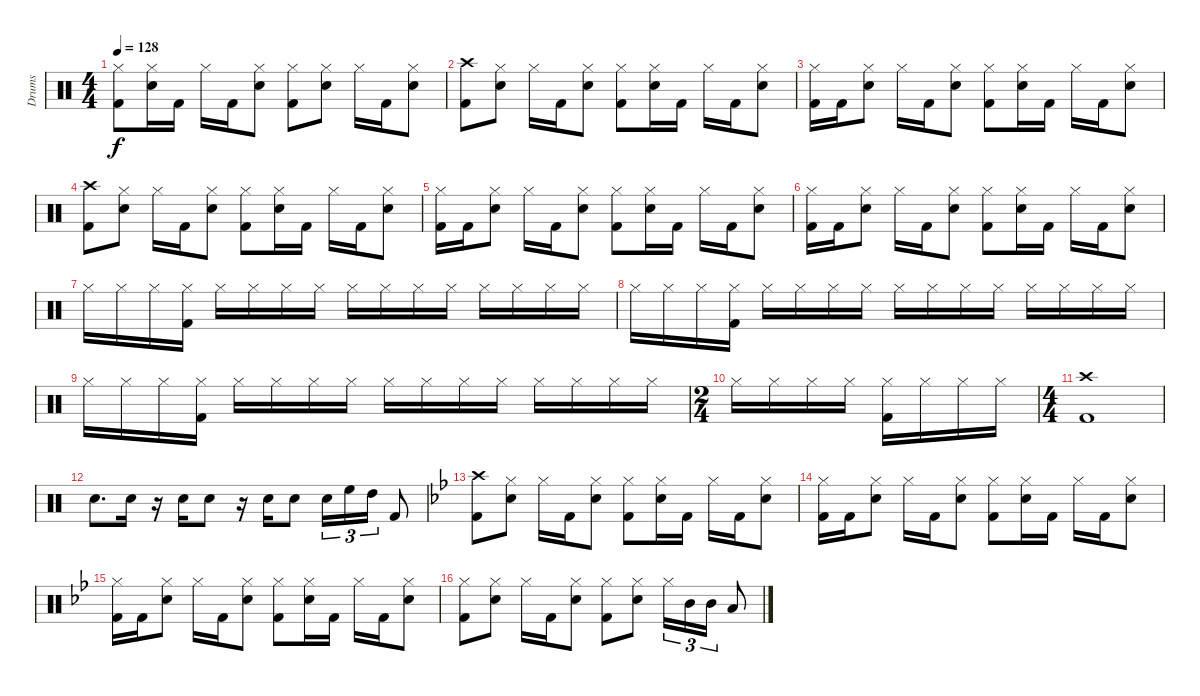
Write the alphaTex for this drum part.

\track ("Drums" "Drums") {instrument percussion}
\staff {score}
\articulation defaults
\ts (4 4)
\tempo 128
\clef neutral
\ks c
("Kick (hit) 2" "Hi-Hat (closed)").8{dy f} ("Snare (hit) 2" "Hi-Hat (closed)").16 "Kick (hit) 2".16 "Hi-Hat (closed)".16 "Kick (hit) 2".16 ("Snare (hit) 2" "Hi-Hat (closed)").8 ("Kick (hit) 2" "Hi-Hat (closed)").8 ("Snare (hit) 2" "Hi-Hat (closed)").8 "Hi-Hat (closed)".16 "Kick (hit) 2".16 ("Snare (hit) 2" "Hi-Hat (closed)").8 |
("Kick (hit) 2" "Crash high (hit)").8 ("Snare (hit) 2" "Hi-Hat (closed)").8 "Hi-Hat (closed)".16 "Kick (hit) 2".16 ("Snare (hit) 2" "Hi-Hat (closed)").8 ("Kick (hit) 2" "Hi-Hat (closed)").8 ("Snare (hit) 2" "Hi-Hat (closed)").16 "Kick (hit) 2".16 "Hi-Hat (closed)".16 "Kick (hit) 2".16 ("Snare (hit) 2" "Hi-Hat (closed)").8 |
("Kick (hit) 2" "Hi-Hat (closed)").16 "Kick (hit) 2".16 ("Snare (hit) 2" "Hi-Hat (closed)").8 "Hi-Hat (closed)".16 "Kick (hit) 2".16 ("Snare (hit) 2" "Hi-Hat (closed)").8 ("Kick (hit) 2" "Hi-Hat (closed)").8 ("Snare (hit) 2" "Hi-Hat (closed)").16 "Kick (hit) 2".16 "Hi-Hat (closed)".16 "Kick (hit) 2".16 ("Snare (hit) 2" "Hi-Hat (closed)").8 |
("Kick (hit) 2" "Crash high (hit)").8 ("Snare (hit) 2" "Hi-Hat (closed)").8 "Hi-Hat (closed)".16 "Kick (hit) 2".16 ("Snare (hit) 2" "Hi-Hat (closed)").8 ("Kick (hit) 2" "Hi-Hat (closed)").8 ("Snare (hit) 2" "Hi-Hat (closed)").16 "Kick (hit) 2".16 "Hi-Hat (closed)".16 "Kick (hit) 2".16 ("Snare (hit) 2" "Hi-Hat (closed)").8 |
("Kick (hit) 2" "Hi-Hat (closed)").16 "Kick (hit) 2".16 ("Snare (hit) 2" "Hi-Hat (closed)").8 "Hi-Hat (closed)".16 "Kick (hit) 2".16 ("Snare (hit) 2" "Hi-Hat (closed)").8 ("Kick (hit) 2" "Hi-Hat (closed)").8 ("Snare (hit) 2" "Hi-Hat (closed)").16 "Kick (hit) 2".16 "Hi-Hat (closed)".16 "Kick (hit) 2".16 ("Snare (hit) 2" "Hi-Hat (closed)").8 |
("Kick (hit) 2" "Hi-Hat (closed)").16 "Kick (hit) 2".16 ("Snare (hit) 2" "Hi-Hat (closed)").8 "Hi-Hat (closed)".16 "Kick (hit) 2".16 ("Snare (hit) 2" "Hi-Hat (closed)").8 ("Kick (hit) 2" "Hi-Hat (closed)").8 ("Snare (hit) 2" "Hi-Hat (closed)").16 "Kick (hit) 2".16 "Hi-Hat (closed)".16 "Kick (hit) 2".16 ("Snare (hit) 2" "Hi-Hat (closed)").8 |
"Hi-Hat (closed)".16 "Hi-Hat (closed)".16 "Hi-Hat (closed)".16 ("Kick (hit) 2" "Hi-Hat (closed)").16 "Hi-Hat (closed)".16 "Hi-Hat (closed)".16 "Hi-Hat (closed)".16 "Hi-Hat (closed)".16 "Hi-Hat (closed)".16 "Hi-Hat (closed)".16 "Hi-Hat (closed)".16 "Hi-Hat (closed)".16 "Hi-Hat (closed)".16 "Hi-Hat (closed)".16 "Hi-Hat (closed)".16 "Hi-Hat (closed)".16 |
"Hi-Hat (closed)".16 "Hi-Hat (closed)".16 "Hi-Hat (closed)".16 ("Kick (hit) 2" "Hi-Hat (closed)").16 "Hi-Hat (closed)".16 "Hi-Hat (closed)".16 "Hi-Hat (closed)".16 "Hi-Hat (closed)".16 "Hi-Hat (closed)".16 "Hi-Hat (closed)".16 "Hi-Hat (closed)".16 "Hi-Hat (closed)".16 "Hi-Hat (closed)".16 "Hi-Hat (closed)".16 "Hi-Hat (closed)".16 "Hi-Hat (closed)".16 |
"Hi-Hat (closed)".16 "Hi-Hat (closed)".16 "Hi-Hat (closed)".16 ("Kick (hit) 2" "Hi-Hat (closed)").16 "Hi-Hat (closed)".16 "Hi-Hat (closed)".16 "Hi-Hat (closed)".16 "Hi-Hat (closed)".16 "Hi-Hat (closed)".16 "Hi-Hat (closed)".16 "Hi-Hat (closed)".16 "Hi-Hat (closed)".16 "Hi-Hat (closed)".16 "Hi-Hat (closed)".16 "Hi-Hat (closed)".16 "Hi-Hat (closed)".16 |
\ts (2 4)
"Hi-Hat (closed)".16 "Hi-Hat (closed)".16 "Hi-Hat (closed)".16 "Hi-Hat (closed)".16 ("Kick (hit) 2" "Hi-Hat (closed)").16 "Hi-Hat (closed)".16 "Hi-Hat (closed)".16 "Hi-Hat (closed)".16 |
\ts (4 4)
("Kick (hit) 2" "Crash high (hit)").1 |
"Snare (hit) 2".8{d} "Snare (hit) 2".16 r.16 "Snare (hit) 2".16 "Snare (hit) 2".8 r.16 "Snare (hit) 2".16 "Snare (hit) 2".8 "Snare (hit) 2".16{tu (3 2)} "High Floor Tom (hit)".16{tu (3 2)} "High Tom (hit)".16{tu (3 2)} "Kick (hit) 2".8 |
\ks gminor
("Kick (hit) 2" "Crash high (hit)").8 ("Snare (hit) 2" "Hi-Hat (closed)").8 "Hi-Hat (closed)".16 "Kick (hit) 2".16 ("Snare (hit) 2" "Hi-Hat (closed)").8 ("Kick (hit) 2" "Hi-Hat (closed)").8 ("Snare (hit) 2" "Hi-Hat (closed)").16 "Kick (hit) 2".16 "Hi-Hat (closed)".16 "Kick (hit) 2".16 ("Snare (hit) 2" "Hi-Hat (closed)").8 |
("Kick (hit) 2" "Hi-Hat (closed)").16 "Kick (hit) 2".16 ("Snare (hit) 2" "Hi-Hat (closed)").8 "Hi-Hat (closed)".16 "Kick (hit) 2".16 ("Snare (hit) 2" "Hi-Hat (closed)").8 ("Kick (hit) 2" "Hi-Hat (closed)").8 ("Snare (hit) 2" "Hi-Hat (closed)").16 "Kick (hit) 2".16 "Hi-Hat (closed)".16 "Kick (hit) 2".16 ("Snare (hit) 2" "Hi-Hat (closed)").8 |
("Kick (hit) 2" "Hi-Hat (closed)").16 "Kick (hit) 2".16 ("Snare (hit) 2" "Hi-Hat (closed)").8 "Hi-Hat (closed)".16 "Kick (hit) 2".16 ("Snare (hit) 2" "Hi-Hat (closed)").8 ("Kick (hit) 2" "Hi-Hat (closed)").8 ("Snare (hit) 2" "Hi-Hat (closed)").16 "Kick (hit) 2".16 "Hi-Hat (closed)".16 "Kick (hit) 2".16 ("Snare (hit) 2" "Hi-Hat (closed)").8 |
("Kick (hit) 2" "Hi-Hat (closed)").8 ("Snare (hit) 2" "Hi-Hat (closed)").8 "Hi-Hat (closed)".16 "Kick (hit) 2".16 ("Snare (hit) 2" "Hi-Hat (closed)").8 ("Kick (hit) 2" "Hi-Hat (closed)").8 ("Snare (hit) 2" "Hi-Hat (closed)").8 "Hi-Hat (closed)".16{tu (3 2)} "Mid Tom (hit)".16{tu (3 2)} "Mid Tom (hit)".16{tu (3 2)} "Low Tom (hit)".8
